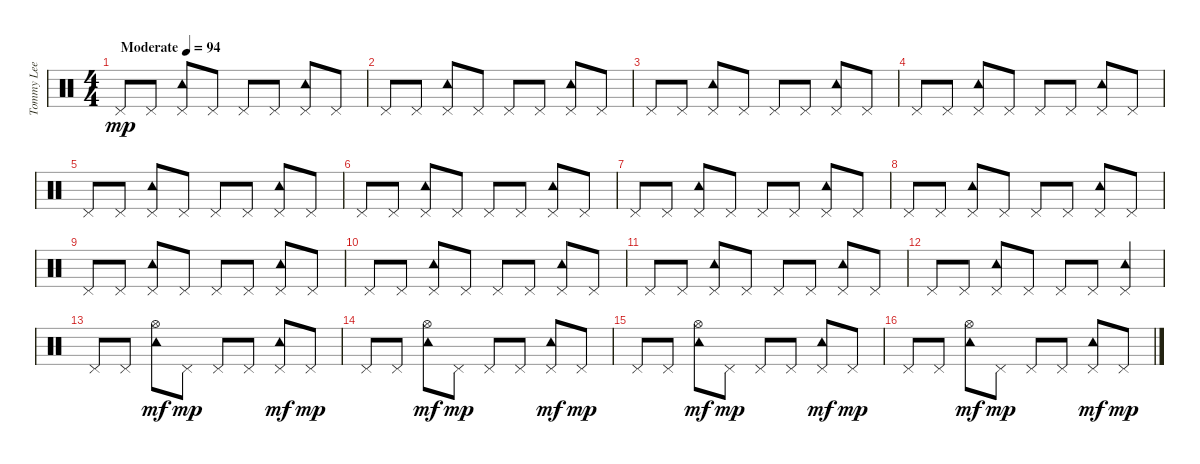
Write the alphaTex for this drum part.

\track ("Tommy Lee" "Tommy Lee") {instrument percussion}
\staff {score}
\articulation defaults
\ts (4 4)
\tempo (94 "Moderate")
\clef neutral
\ks c "Pedal Hi-Hat (hit)".8{dy mp} "Pedal Hi-Hat (hit)".8
("Pedal Hi-Hat (hit)" "Tambourine (hit)").8 "Pedal Hi-Hat (hit)".8 "Pedal Hi-Hat (hit)".8 "Pedal Hi-Hat (hit)".8 ("Pedal Hi-Hat (hit)" "Tambourine (hit)").8 "Pedal Hi-Hat (hit)".8 |
"Pedal Hi-Hat (hit)".8 "Pedal Hi-Hat (hit)".8 ("Pedal Hi-Hat (hit)" "Tambourine (hit)").8 "Pedal Hi-Hat (hit)".8 "Pedal Hi-Hat (hit)".8 "Pedal Hi-Hat (hit)".8 ("Pedal Hi-Hat (hit)" "Tambourine (hit)").8 "Pedal Hi-Hat (hit)".8 |
"Pedal Hi-Hat (hit)".8 "Pedal Hi-Hat (hit)".8 ("Pedal Hi-Hat (hit)" "Tambourine (hit)").8 "Pedal Hi-Hat (hit)".8 "Pedal Hi-Hat (hit)".8 "Pedal Hi-Hat (hit)".8 ("Pedal Hi-Hat (hit)" "Tambourine (hit)").8 "Pedal Hi-Hat (hit)".8 |
"Pedal Hi-Hat (hit)".8 "Pedal Hi-Hat (hit)".8 ("Pedal Hi-Hat (hit)" "Tambourine (hit)").8 "Pedal Hi-Hat (hit)".8 "Pedal Hi-Hat (hit)".8 "Pedal Hi-Hat (hit)".8 ("Pedal Hi-Hat (hit)" "Tambourine (hit)").8 "Pedal Hi-Hat (hit)".8 |
"Pedal Hi-Hat (hit)".8 "Pedal Hi-Hat (hit)".8 ("Pedal Hi-Hat (hit)" "Tambourine (hit)").8 "Pedal Hi-Hat (hit)".8 "Pedal Hi-Hat (hit)".8 "Pedal Hi-Hat (hit)".8 ("Pedal Hi-Hat (hit)" "Tambourine (hit)").8 "Pedal Hi-Hat (hit)".8 |
"Pedal Hi-Hat (hit)".8 "Pedal Hi-Hat (hit)".8 ("Pedal Hi-Hat (hit)" "Tambourine (hit)").8 "Pedal Hi-Hat (hit)".8 "Pedal Hi-Hat (hit)".8 "Pedal Hi-Hat (hit)".8 ("Pedal Hi-Hat (hit)" "Tambourine (hit)").8 "Pedal Hi-Hat (hit)".8 |
"Pedal Hi-Hat (hit)".8 "Pedal Hi-Hat (hit)".8 ("Pedal Hi-Hat (hit)" "Tambourine (hit)").8 "Pedal Hi-Hat (hit)".8 "Pedal Hi-Hat (hit)".8 "Pedal Hi-Hat (hit)".8 ("Pedal Hi-Hat (hit)" "Tambourine (hit)").8 "Pedal Hi-Hat (hit)".8 |
"Pedal Hi-Hat (hit)".8 "Pedal Hi-Hat (hit)".8 ("Pedal Hi-Hat (hit)" "Tambourine (hit)").8 "Pedal Hi-Hat (hit)".8 "Pedal Hi-Hat (hit)".8 "Pedal Hi-Hat (hit)".8 ("Pedal Hi-Hat (hit)" "Tambourine (hit)").8 "Pedal Hi-Hat (hit)".8 |
"Pedal Hi-Hat (hit)".8 "Pedal Hi-Hat (hit)".8 ("Pedal Hi-Hat (hit)" "Tambourine (hit)").8 "Pedal Hi-Hat (hit)".8 "Pedal Hi-Hat (hit)".8 "Pedal Hi-Hat (hit)".8 ("Pedal Hi-Hat (hit)" "Tambourine (hit)").8 "Pedal Hi-Hat (hit)".8 |
"Pedal Hi-Hat (hit)".8 "Pedal Hi-Hat (hit)".8 ("Pedal Hi-Hat (hit)" "Tambourine (hit)").8 "Pedal Hi-Hat (hit)".8 "Pedal Hi-Hat (hit)".8 "Pedal Hi-Hat (hit)".8 ("Pedal Hi-Hat (hit)" "Tambourine (hit)").8 "Pedal Hi-Hat (hit)".8 |
"Pedal Hi-Hat (hit)".8 "Pedal Hi-Hat (hit)".8 ("Pedal Hi-Hat (hit)" "Tambourine (hit)").8 "Pedal Hi-Hat (hit)".8 "Pedal Hi-Hat (hit)".8 "Pedal Hi-Hat (hit)".8 ("Pedal Hi-Hat (hit)" "Tambourine (hit)").8 "Pedal Hi-Hat (hit)".8 |
"Pedal Hi-Hat (hit)".8 "Pedal Hi-Hat (hit)".8 ("Pedal Hi-Hat (hit)" "Tambourine (hit)").8 "Pedal Hi-Hat (hit)".8 "Pedal Hi-Hat (hit)".8 "Pedal Hi-Hat (hit)".8 ("Pedal Hi-Hat (hit)" "Tambourine (hit)").4 |
"Pedal Hi-Hat (hit)".8 "Pedal Hi-Hat (hit)".8 ("Hi-Hat (open)" "Tambourine (hit)").8{dy mf} "Pedal Hi-Hat (hit)".8{dy mp} "Pedal Hi-Hat (hit)".8 "Pedal Hi-Hat (hit)".8 ("Pedal Hi-Hat (hit)" "Tambourine (hit)").8{dy mf} "Pedal Hi-Hat (hit)".8{dy mp} |
"Pedal Hi-Hat (hit)".8 "Pedal Hi-Hat (hit)".8 ("Hi-Hat (open)" "Tambourine (hit)").8{dy mf} "Pedal Hi-Hat (hit)".8{dy mp} "Pedal Hi-Hat (hit)".8 "Pedal Hi-Hat (hit)".8 ("Pedal Hi-Hat (hit)" "Tambourine (hit)").8{dy mf} "Pedal Hi-Hat (hit)".8{dy mp} |
"Pedal Hi-Hat (hit)".8 "Pedal Hi-Hat (hit)".8 ("Hi-Hat (open)" "Tambourine (hit)").8{dy mf} "Pedal Hi-Hat (hit)".8{dy mp} "Pedal Hi-Hat (hit)".8 "Pedal Hi-Hat (hit)".8 ("Pedal Hi-Hat (hit)" "Tambourine (hit)").8{dy mf} "Pedal Hi-Hat (hit)".8{dy mp} |
"Pedal Hi-Hat (hit)".8 "Pedal Hi-Hat (hit)".8 ("Hi-Hat (open)" "Tambourine (hit)").8{dy mf} "Pedal Hi-Hat (hit)".8{dy mp} "Pedal Hi-Hat (hit)".8 "Pedal Hi-Hat (hit)".8 ("Pedal Hi-Hat (hit)" "Tambourine (hit)").8{dy mf} "Pedal Hi-Hat (hit)".8{dy mp}
